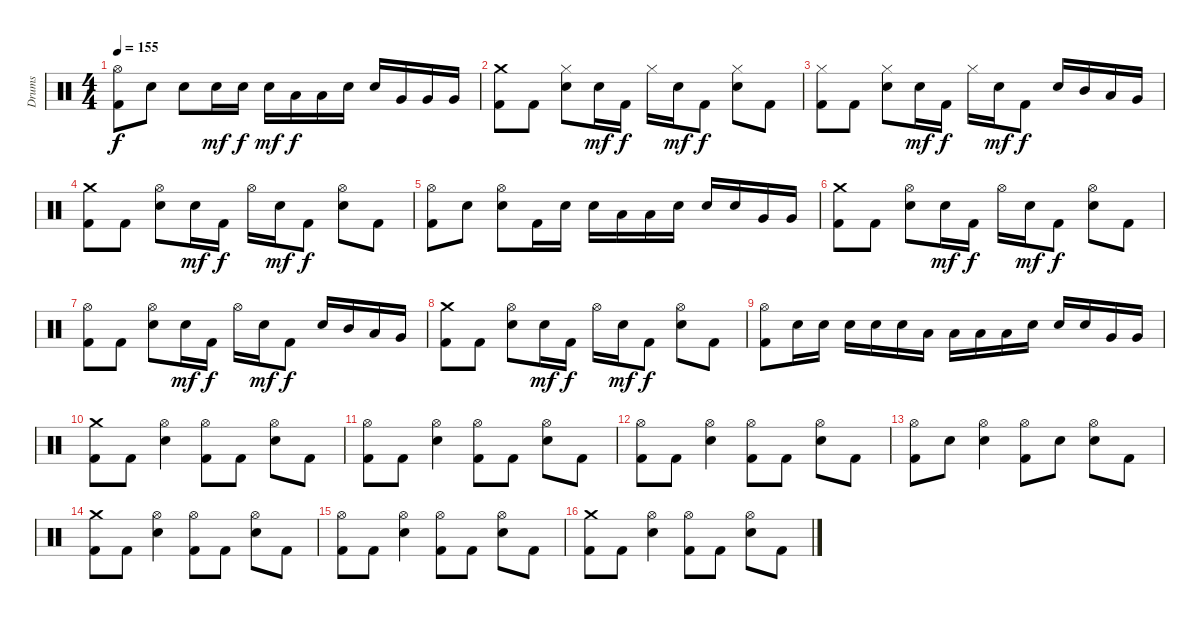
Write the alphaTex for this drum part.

\track ("Drums" "Drums") {instrument percussion}
\staff {score}
\articulation defaults
\ts (4 4)
\tempo 155
\clef neutral
\ks c
("Hi-Hat (open)" "Kick (hit) 2").8{dy f} "Electric Snare (hit)".8 "Electric Snare (hit)".8 "Electric Snare (hit)".16{dy mf} "Electric Snare (hit)".16{dy f} "Electric Snare (hit)".16{dy mf} "Low Tom (hit)".16{dy f} "Low Tom (hit)".16 "Electric Snare (hit)".16 "Electric Snare (hit)".16 "Very Low Tom (hit)".16 "Very Low Tom (hit)".16 "Very Low Tom (hit)".16 |
("Crash medium (hit)" "Kick (hit) 2").8 "Kick (hit) 2".8 ("Hi-Hat (closed)" "Electric Snare (hit)").8 "Electric Snare (hit)".16{dy mf} "Kick (hit) 2".16{dy f} "Hi-Hat (closed)".16 "Electric Snare (hit)".16{dy mf} "Kick (hit) 2".8{dy f} ("Hi-Hat (closed)" "Electric Snare (hit)").8 "Kick (hit) 2".8 |
("Hi-Hat (closed)" "Kick (hit) 2").8 "Kick (hit) 2".8 ("Hi-Hat (closed)" "Electric Snare (hit)").8 "Electric Snare (hit)".16{dy mf} "Kick (hit) 2".16{dy f} "Hi-Hat (closed)".16 "Electric Snare (hit)".16{dy mf} "Kick (hit) 2".8{dy f} "Electric Snare (hit)".16 "Mid Tom (hit)".16 "Low Tom (hit)".16 "Very Low Tom (hit)".16 |
("Crash medium (hit)" "Kick (hit) 2").8 "Kick (hit) 2".8 ("Hi-Hat (open)" "Electric Snare (hit)").8 "Electric Snare (hit)".16{dy mf} "Kick (hit) 2".16{dy f} "Hi-Hat (open)".16 "Electric Snare (hit)".16{dy mf} "Kick (hit) 2".8{dy f} ("Hi-Hat (open)" "Electric Snare (hit)").8 "Kick (hit) 2".8 |
("Hi-Hat (open)" "Kick (hit) 2").8 "Electric Snare (hit)".8 ("Hi-Hat (open)" "Electric Snare (hit)").8 "Kick (hit) 2".16 "Electric Snare (hit)".16 "Electric Snare (hit)".16 "Low Tom (hit)".16 "Low Tom (hit)".16 "Electric Snare (hit)".16 "Electric Snare (hit)".16 "Electric Snare (hit)".16 "Very Low Tom (hit)".16 "Very Low Tom (hit)".16 |
("Crash medium (hit)" "Kick (hit) 2").8 "Kick (hit) 2".8 ("Hi-Hat (open)" "Electric Snare (hit)").8 "Electric Snare (hit)".16{dy mf} "Kick (hit) 2".16{dy f} "Hi-Hat (open)".16 "Electric Snare (hit)".16{dy mf} "Kick (hit) 2".8{dy f} ("Hi-Hat (open)" "Electric Snare (hit)").8 "Kick (hit) 2".8 |
("Hi-Hat (open)" "Kick (hit) 2").8 "Kick (hit) 2".8 ("Hi-Hat (open)" "Electric Snare (hit)").8 "Electric Snare (hit)".16{dy mf} "Kick (hit) 2".16{dy f} "Hi-Hat (open)".16 "Electric Snare (hit)".16{dy mf} "Kick (hit) 2".8{dy f} "Electric Snare (hit)".16 "Mid Tom (hit)".16 "Low Tom (hit)".16 "Very Low Tom (hit)".16 |
("Crash medium (hit)" "Kick (hit) 2").8 "Kick (hit) 2".8 ("Hi-Hat (open)" "Electric Snare (hit)").8 "Electric Snare (hit)".16{dy mf} "Kick (hit) 2".16{dy f} "Hi-Hat (open)".16 "Electric Snare (hit)".16{dy mf} "Kick (hit) 2".8{dy f} ("Hi-Hat (open)" "Electric Snare (hit)").8 "Kick (hit) 2".8 |
("Hi-Hat (open)" "Kick (hit) 2").8 "Electric Snare (hit)".16 "Electric Snare (hit)".16 "Electric Snare (hit)".16 "Electric Snare (hit)".16 "Electric Snare (hit)".16 "Low Tom (hit)".16 "Low Tom (hit)".16 "Low Tom (hit)".16 "Low Tom (hit)".16 "Electric Snare (hit)".16 "Electric Snare (hit)".16 "Electric Snare (hit)".16 "Very Low Tom (hit)".16 "Very Low Tom (hit)".16 |
("Crash medium (hit)" "Kick (hit) 2").8 "Kick (hit) 2".8 ("Hi-Hat (open)" "Electric Snare (hit)").4 ("Hi-Hat (open)" "Kick (hit) 2").8 "Kick (hit) 2".8 ("Hi-Hat (open)" "Electric Snare (hit)").8 "Kick (hit) 2".8 |
("Hi-Hat (open)" "Kick (hit) 2").8 "Kick (hit) 2".8 ("Hi-Hat (open)" "Electric Snare (hit)").4 ("Hi-Hat (open)" "Kick (hit) 2").8 "Kick (hit) 2".8 ("Hi-Hat (open)" "Electric Snare (hit)").8 "Kick (hit) 2".8 |
("Hi-Hat (open)" "Kick (hit) 2").8 "Kick (hit) 2".8 ("Hi-Hat (open)" "Electric Snare (hit)").4 ("Hi-Hat (open)" "Kick (hit) 2").8 "Kick (hit) 2".8 ("Hi-Hat (open)" "Electric Snare (hit)").8 "Kick (hit) 2".8 |
("Hi-Hat (open)" "Kick (hit) 2").8 "Electric Snare (hit)".8 ("Hi-Hat (open)" "Electric Snare (hit)").4 ("Hi-Hat (open)" "Kick (hit) 2").8 "Electric Snare (hit)".8 ("Hi-Hat (open)" "Electric Snare (hit)").8 "Kick (hit) 2".8 |
("Crash medium (hit)" "Kick (hit) 2").8 "Kick (hit) 2".8 ("Hi-Hat (open)" "Electric Snare (hit)").4 ("Hi-Hat (open)" "Kick (hit) 2").8 "Kick (hit) 2".8 ("Hi-Hat (open)" "Electric Snare (hit)").8 "Kick (hit) 2".8 |
("Hi-Hat (open)" "Kick (hit) 2").8 "Kick (hit) 2".8 ("Hi-Hat (open)" "Electric Snare (hit)").4 ("Hi-Hat (open)" "Kick (hit) 2").8 "Kick (hit) 2".8 ("Hi-Hat (open)" "Electric Snare (hit)").8 "Kick (hit) 2".8 |
("Crash medium (hit)" "Kick (hit) 2").8 "Kick (hit) 2".8 ("Hi-Hat (open)" "Electric Snare (hit)").4 ("Hi-Hat (open)" "Kick (hit) 2").8 "Kick (hit) 2".8 ("Hi-Hat (open)" "Electric Snare (hit)").8 "Kick (hit) 2".8
